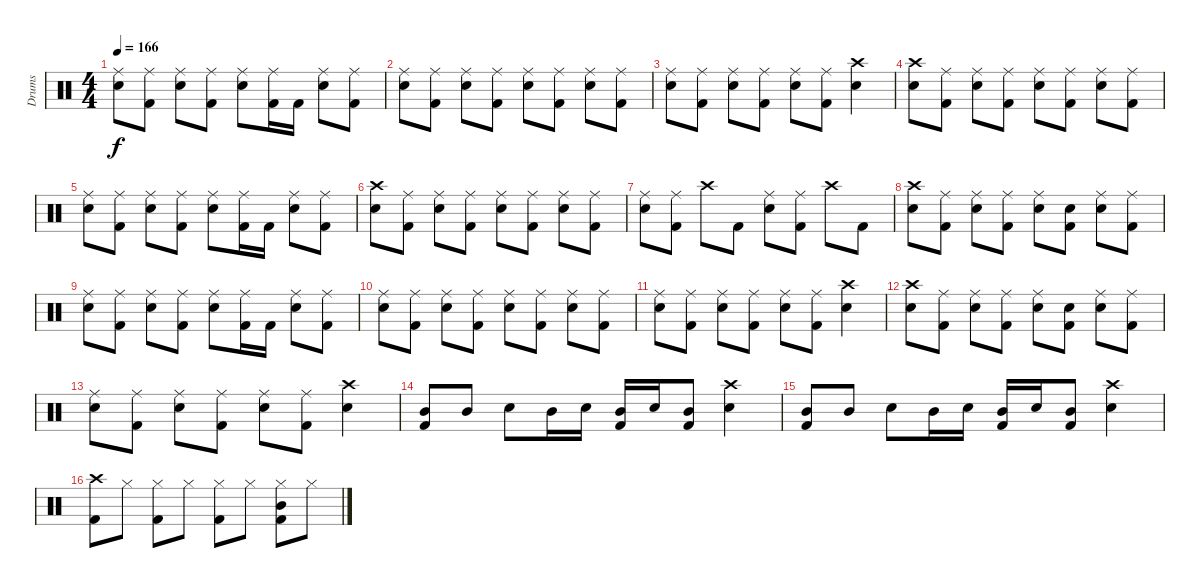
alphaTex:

\track ("Drums" "Drums") {instrument percussion}
\staff {score}
\articulation defaults
\ts (4 4)
\tempo 166
\clef neutral
\ks c
("Ride (middle)" "Snare (hit) 2").8{dy f} ("Ride (middle)" "Kick (hit) 2").8 ("Ride (middle)" "Snare (hit) 2").8 ("Ride (middle)" "Kick (hit) 2").8 ("Ride (middle)" "Snare (hit) 2").8 ("Ride (middle)" "Kick (hit) 2").16 "Kick (hit) 2".16 ("Ride (middle)" "Snare (hit) 2").8 ("Ride (middle)" "Kick (hit) 2").8 |
("Ride (middle)" "Snare (hit) 2").8 ("Ride (middle)" "Kick (hit) 2").8 ("Ride (middle)" "Snare (hit) 2").8 ("Ride (middle)" "Kick (hit) 2").8 ("Ride (middle)" "Snare (hit) 2").8 ("Ride (middle)" "Kick (hit) 2").8 ("Ride (middle)" "Snare (hit) 2").8 ("Ride (middle)" "Kick (hit) 2").8 |
("Ride (middle)" "Snare (hit) 2").8 ("Ride (middle)" "Kick (hit) 2").8 ("Ride (middle)" "Snare (hit) 2").8 ("Ride (middle)" "Kick (hit) 2").8 ("Ride (middle)" "Snare (hit) 2").8 ("Ride (middle)" "Kick (hit) 2").8 ("Crash high (hit)" "Snare (hit) 2").4 |
("Crash high (hit)" "Snare (hit) 2").8 ("Ride (middle)" "Kick (hit) 2").8 ("Ride (middle)" "Snare (hit) 2").8 ("Ride (middle)" "Kick (hit) 2").8 ("Ride (middle)" "Snare (hit) 2").8 ("Ride (middle)" "Kick (hit) 2").8 ("Ride (middle)" "Snare (hit) 2").8 ("Ride (middle)" "Kick (hit) 2").8 |
("Ride (middle)" "Snare (hit) 2").8 ("Ride (middle)" "Kick (hit) 2").8 ("Ride (middle)" "Snare (hit) 2").8 ("Ride (middle)" "Kick (hit) 2").8 ("Ride (middle)" "Snare (hit) 2").8 ("Ride (middle)" "Kick (hit) 2").16 "Kick (hit) 2".16 ("Ride (middle)" "Snare (hit) 2").8 ("Ride (middle)" "Kick (hit) 2").8 |
("Crash high (hit)" "Snare (hit) 2").8 ("Ride (middle)" "Kick (hit) 2").8 ("Ride (middle)" "Snare (hit) 2").8 ("Ride (middle)" "Kick (hit) 2").8 ("Ride (middle)" "Snare (hit) 2").8 ("Ride (middle)" "Kick (hit) 2").8 ("Ride (middle)" "Snare (hit) 2").8 ("Ride (middle)" "Kick (hit) 2").8 |
("Ride (middle)" "Snare (hit) 2").8 ("Ride (middle)" "Kick (hit) 2").8 "Crash high (hit)".8 "Kick (hit) 2".8 ("Ride (middle)" "Snare (hit) 2").8 ("Ride (middle)" "Kick (hit) 2").8 "Crash high (hit)".8 "Kick (hit) 2".8 |
("Crash high (hit)" "Snare (hit) 2").8 ("Ride (middle)" "Kick (hit) 2").8 ("Ride (middle)" "Snare (hit) 2").8 ("Ride (middle)" "Kick (hit) 2").8 ("Ride (middle)" "Snare (hit) 2").8 ("Snare (hit)" "Kick (hit) 2").8 ("Ride (middle)" "Snare (hit) 2").8 ("Ride (middle)" "Kick (hit) 2").8 |
("Ride (middle)" "Snare (hit) 2").8 ("Ride (middle)" "Kick (hit) 2").8 ("Ride (middle)" "Snare (hit) 2").8 ("Ride (middle)" "Kick (hit) 2").8 ("Ride (middle)" "Snare (hit) 2").8 ("Ride (middle)" "Kick (hit) 2").16 "Kick (hit) 2".16 ("Ride (middle)" "Snare (hit) 2").8 ("Ride (middle)" "Kick (hit) 2").8 |
("Ride (middle)" "Snare (hit) 2").8 ("Ride (middle)" "Kick (hit) 2").8 ("Ride (middle)" "Snare (hit) 2").8 ("Ride (middle)" "Kick (hit) 2").8 ("Ride (middle)" "Snare (hit) 2").8 ("Ride (middle)" "Kick (hit) 2").8 ("Ride (middle)" "Snare (hit) 2").8 ("Ride (middle)" "Kick (hit) 2").8 |
("Ride (middle)" "Snare (hit) 2").8 ("Ride (middle)" "Kick (hit) 2").8 ("Ride (middle)" "Snare (hit) 2").8 ("Ride (middle)" "Kick (hit) 2").8 ("Ride (middle)" "Snare (hit) 2").8 ("Ride (middle)" "Kick (hit) 2").8 ("Crash high (hit)" "Snare (hit) 2").4 |
("Crash high (hit)" "Snare (hit) 2").8 ("Ride (middle)" "Kick (hit) 2").8 ("Ride (middle)" "Snare (hit) 2").8 ("Ride (middle)" "Kick (hit) 2").8 ("Ride (middle)" "Snare (hit) 2").8 ("Snare (hit)" "Kick (hit) 2").8 ("Ride (middle)" "Snare (hit) 2").8 ("Ride (middle)" "Kick (hit) 2").8 |
("Ride (middle)" "Snare (hit) 2").8 ("Ride (middle)" "Kick (hit) 2").8 ("Ride (middle)" "Snare (hit) 2").8 ("Ride (middle)" "Kick (hit) 2").8 ("Ride (middle)" "Snare (hit) 2").8 ("Ride (middle)" "Kick (hit) 2").8 ("Crash high (hit)" "Snare (hit) 2").4 |
("Mid Tom (hit)" "Kick (hit) 2").8 "Mid Tom (hit)".8 "Snare (hit) 2".8 "Mid Tom (hit)".16 "Snare (hit) 2".16 ("Mid Tom (hit)" "Kick (hit) 2").16 "Snare (hit) 2".16 ("Mid Tom (hit)" "Kick (hit) 2").8 ("Crash high (hit)" "Snare (hit) 2").4 |
("Mid Tom (hit)" "Kick (hit) 2").8 "Mid Tom (hit)".8 "Snare (hit) 2".8 "Mid Tom (hit)".16 "Snare (hit) 2".16 ("Mid Tom (hit)" "Kick (hit) 2").16 "Snare (hit) 2".16 ("Mid Tom (hit)" "Kick (hit) 2").8 ("Crash high (hit)" "Snare (hit) 2").4 |
("Crash high (hit)" "Kick (hit) 2").8 "Hi-Hat (closed)".8 ("Hi-Hat (closed)" "Kick (hit) 2").8 "Hi-Hat (closed)".8 ("Hi-Hat (closed)" "Kick (hit) 2").8 "Hi-Hat (closed)".8 ("Mid Tom (hit)" "Hi-Hat (closed)" "Kick (hit) 2").8 "Hi-Hat (closed)".8
